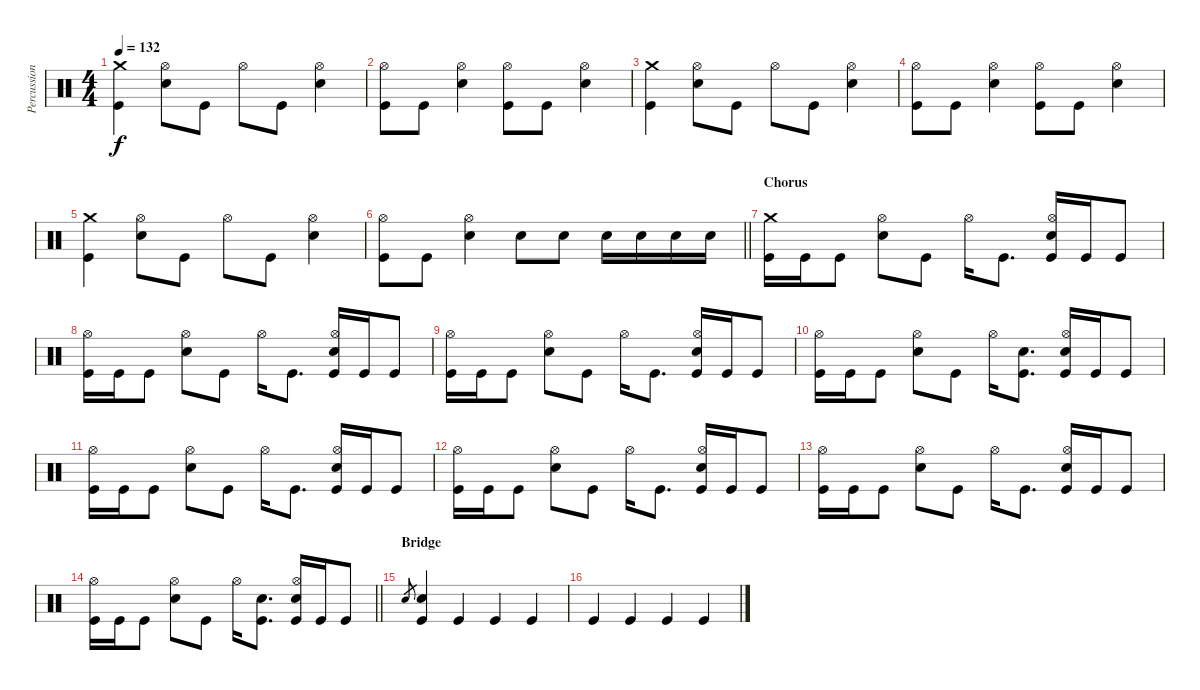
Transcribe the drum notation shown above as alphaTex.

\track ("Percussion" "Percussion") {instrument percussion}
\staff {score}
\articulation defaults
\ts (4 4)
\tempo 132
\clef neutral
\ks c
("Crash medium (hit)" "Kick (hit)").4{dy f} ("Hi-Hat (open)" "Electric Snare (hit)").8 "Kick (hit)".8 "Hi-Hat (open)".8 "Kick (hit)".8 ("Hi-Hat (open)" "Electric Snare (hit)").4 |
("Hi-Hat (open)" "Kick (hit)").8 "Kick (hit)".8 ("Hi-Hat (open)" "Electric Snare (hit)").4 ("Hi-Hat (open)" "Kick (hit)").8 "Kick (hit)".8 ("Hi-Hat (open)" "Electric Snare (hit)").4 |
("Crash medium (hit)" "Kick (hit)").4 ("Hi-Hat (open)" "Electric Snare (hit)").8 "Kick (hit)".8 "Hi-Hat (open)".8 "Kick (hit)".8 ("Hi-Hat (open)" "Electric Snare (hit)").4 |
("Hi-Hat (open)" "Kick (hit)").8 "Kick (hit)".8 ("Hi-Hat (open)" "Electric Snare (hit)").4 ("Hi-Hat (open)" "Kick (hit)").8 "Kick (hit)".8 ("Hi-Hat (open)" "Electric Snare (hit)").4 |
("Crash medium (hit)" "Kick (hit)").4 ("Hi-Hat (open)" "Electric Snare (hit)").8 "Kick (hit)".8 "Hi-Hat (open)".8 "Kick (hit)".8 ("Hi-Hat (open)" "Electric Snare (hit)").4 |
\barLineRight lightlight
("Hi-Hat (open)" "Kick (hit)").8 "Kick (hit)".8 ("Hi-Hat (open)" "Electric Snare (hit)").4 "Electric Snare (hit)".8 "Electric Snare (hit)".8 "Electric Snare (hit)".16 "Electric Snare (hit)".16 "Electric Snare (hit)".16 "Electric Snare (hit)".16 |
\section ("" "Chorus")
("Crash medium (hit)" "Kick (hit)").16 "Kick (hit)".16 "Kick (hit)".8 ("Hi-Hat (open)" "Electric Snare (hit)").8 "Kick (hit)".8 "Hi-Hat (open)".16 "Kick (hit)".8{d} ("Hi-Hat (open)" "Electric Snare (hit)" "Kick (hit)").16 "Kick (hit)".16 "Kick (hit)".8 |
("Hi-Hat (open)" "Kick (hit)").16 "Kick (hit)".16 "Kick (hit)".8 ("Hi-Hat (open)" "Electric Snare (hit)").8 "Kick (hit)".8 "Hi-Hat (open)".16 "Kick (hit)".8{d} ("Hi-Hat (open)" "Electric Snare (hit)" "Kick (hit)").16 "Kick (hit)".16 "Kick (hit)".8 |
("Hi-Hat (open)" "Kick (hit)").16 "Kick (hit)".16 "Kick (hit)".8 ("Hi-Hat (open)" "Electric Snare (hit)").8 "Kick (hit)".8 "Hi-Hat (open)".16 "Kick (hit)".8{d} ("Hi-Hat (open)" "Electric Snare (hit)" "Kick (hit)").16 "Kick (hit)".16 "Kick (hit)".8 |
("Hi-Hat (open)" "Kick (hit)").16 "Kick (hit)".16 "Kick (hit)".8 ("Hi-Hat (open)" "Electric Snare (hit)").8 "Kick (hit)".8 "Hi-Hat (open)".16 ("Electric Snare (hit)" "Kick (hit)").8{d} ("Hi-Hat (open)" "Electric Snare (hit)" "Kick (hit)").16 "Kick (hit)".16 "Kick (hit)".8 |
("Hi-Hat (open)" "Kick (hit)").16 "Kick (hit)".16 "Kick (hit)".8 ("Hi-Hat (open)" "Electric Snare (hit)").8 "Kick (hit)".8 "Hi-Hat (open)".16 "Kick (hit)".8{d} ("Hi-Hat (open)" "Electric Snare (hit)" "Kick (hit)").16 "Kick (hit)".16 "Kick (hit)".8 |
("Hi-Hat (open)" "Kick (hit)").16 "Kick (hit)".16 "Kick (hit)".8 ("Hi-Hat (open)" "Electric Snare (hit)").8 "Kick (hit)".8 "Hi-Hat (open)".16 "Kick (hit)".8{d} ("Hi-Hat (open)" "Electric Snare (hit)" "Kick (hit)").16 "Kick (hit)".16 "Kick (hit)".8 |
("Hi-Hat (open)" "Kick (hit)").16 "Kick (hit)".16 "Kick (hit)".8 ("Hi-Hat (open)" "Electric Snare (hit)").8 "Kick (hit)".8 "Hi-Hat (open)".16 "Kick (hit)".8{d} ("Hi-Hat (open)" "Electric Snare (hit)" "Kick (hit)").16 "Kick (hit)".16 "Kick (hit)".8 |
\barLineRight lightlight
("Hi-Hat (open)" "Kick (hit)").16 "Kick (hit)".16 "Kick (hit)".8 ("Hi-Hat (open)" "Electric Snare (hit)").8 "Kick (hit)".8 "Hi-Hat (open)".16 ("Electric Snare (hit)" "Kick (hit)").8{d} ("Hi-Hat (open)" "Electric Snare (hit)" "Kick (hit)").16 "Kick (hit)".16 "Kick (hit)".8 |
\section ("" "Bridge")
"Electric Snare (hit)".8{gr} ("Electric Snare (hit)" "Kick (hit)").4 "Kick (hit)".4 "Kick (hit)".4 "Kick (hit)".4 |
"Kick (hit)".4 "Kick (hit)".4 "Kick (hit)".4 "Kick (hit)".4
